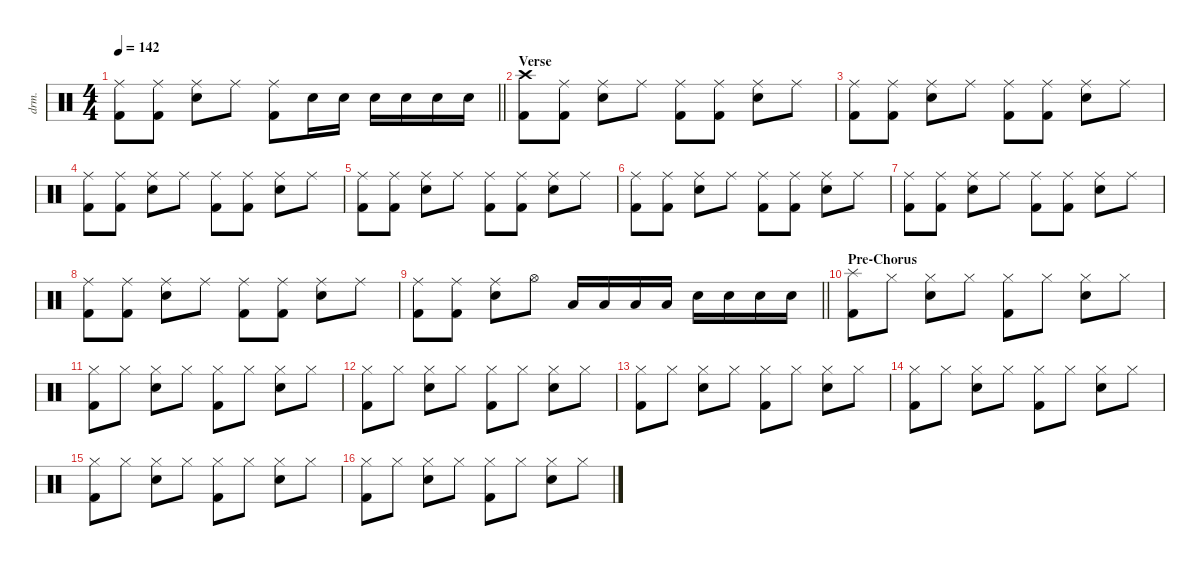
\defaultSystemsLayout 4
\hideDynamics
\bracketExtendMode nobrackets
\otherSystemsTrackNameOrientation horizontal
\track ("Drums" "drm.") {defaultSystemsLayout 4 instrument percussion}
\staff {score}
\articulation defaults
\ts (4 4)
\tempo 142
\clef neutral
\barLineRight lightlight
\ks c
("Ride (middle)" "Kick (hit) 2").8{dy f beam Down} ("Ride (middle)" "Kick (hit) 2").8{beam Down} ("Ride (middle)" "Snare (hit) 2").8{beam Down} "Ride (middle)".8{beam Down} ("Ride (middle)" "Kick (hit) 2").8{beam Down} "Snare (hit) 2".16{beam Down} "Snare (hit) 2".16{beam Down} "Snare (hit) 2".16{beam Down} "Snare (hit) 2".16{beam Down} "Snare (hit) 2".16{beam Down} "Snare (hit) 2".16{beam Down} |
\section ("" "Verse")
("Crash high (hit)" "Kick (hit) 2").8{beam Down} ("Ride (middle)" "Kick (hit) 2").8{beam Down} ("Ride (middle)" "Snare (hit) 2").8{beam Down} "Ride (middle)".8{beam Down} ("Ride (middle)" "Kick (hit) 2").8{beam Down} ("Ride (middle)" "Kick (hit) 2").8{beam Down} ("Ride (middle)" "Snare (hit) 2").8{beam Down} "Ride (middle)".8{beam Down} |
("Ride (middle)" "Kick (hit) 2").8{beam Down} ("Ride (middle)" "Kick (hit) 2").8{beam Down} ("Ride (middle)" "Snare (hit) 2").8{beam Down} "Ride (middle)".8{beam Down} ("Ride (middle)" "Kick (hit) 2").8{beam Down} ("Ride (middle)" "Kick (hit) 2").8{beam Down} ("Ride (middle)" "Snare (hit) 2").8{beam Down} "Ride (middle)".8{beam Down} |
("Ride (middle)" "Kick (hit) 2").8{beam Down} ("Ride (middle)" "Kick (hit) 2").8{beam Down} ("Ride (middle)" "Snare (hit) 2").8{beam Down} "Ride (middle)".8{beam Down} ("Ride (middle)" "Kick (hit) 2").8{beam Down} ("Ride (middle)" "Kick (hit) 2").8{beam Down} ("Ride (middle)" "Snare (hit) 2").8{beam Down} "Ride (middle)".8{beam Down} |
("Ride (middle)" "Kick (hit) 2").8{beam Down} ("Ride (middle)" "Kick (hit) 2").8{beam Down} ("Ride (middle)" "Snare (hit) 2").8{beam Down} "Ride (middle)".8{beam Down} ("Ride (middle)" "Kick (hit) 2").8{beam Down} ("Ride (middle)" "Kick (hit) 2").8{beam Down} ("Ride (middle)" "Snare (hit) 2").8{beam Down} "Ride (middle)".8{beam Down} |
("Ride (middle)" "Kick (hit) 2").8{beam Down} ("Ride (middle)" "Kick (hit) 2").8{beam Down} ("Ride (middle)" "Snare (hit) 2").8{beam Down} "Ride (middle)".8{beam Down} ("Ride (middle)" "Kick (hit) 2").8{beam Down} ("Ride (middle)" "Kick (hit) 2").8{beam Down} ("Ride (middle)" "Snare (hit) 2").8{beam Down} "Ride (middle)".8{beam Down} |
("Ride (middle)" "Kick (hit) 2").8{beam Down} ("Ride (middle)" "Kick (hit) 2").8{beam Down} ("Ride (middle)" "Snare (hit) 2").8{beam Down} "Ride (middle)".8{beam Down} ("Ride (middle)" "Kick (hit) 2").8{beam Down} ("Ride (middle)" "Kick (hit) 2").8{beam Down} ("Ride (middle)" "Snare (hit) 2").8{beam Down} "Ride (middle)".8{beam Down} |
("Ride (middle)" "Kick (hit) 2").8{beam Down} ("Ride (middle)" "Kick (hit) 2").8{beam Down} ("Ride (middle)" "Snare (hit) 2").8{beam Down} "Ride (middle)".8{beam Down} ("Ride (middle)" "Kick (hit) 2").8{beam Down} ("Ride (middle)" "Kick (hit) 2").8{beam Down} ("Ride (middle)" "Snare (hit) 2").8{beam Down} "Ride (middle)".8{beam Down} |
\barLineRight lightlight
("Ride (middle)" "Kick (hit) 2").8{beam Down} ("Ride (middle)" "Kick (hit) 2").8{beam Down} ("Ride (middle)" "Snare (hit) 2").8{beam Down} "Hi-Hat (open)".8{beam Down} "Low Tom (hit)".16{beam Up} "Low Tom (hit)".16{beam Up} "Low Tom (hit)".16{beam Up} "Low Tom (hit)".16{beam Up} "Snare (hit) 2".16{beam Down} "Snare (hit) 2".16{beam Down} "Snare (hit) 2".16{beam Down} "Snare (hit) 2".16{beam Down} |
\section ("" "Pre-Chorus")
("Splash (hit)" "Kick (hit) 2").8{beam Down} "Hi-Hat (closed)".8{beam Down} ("Hi-Hat (closed)" "Snare (hit) 2").8{beam Down} "Hi-Hat (closed)".8{beam Down} ("Hi-Hat (closed)" "Kick (hit) 2").8{beam Down} "Hi-Hat (closed)".8{beam Down} ("Hi-Hat (closed)" "Snare (hit) 2").8{beam Down} "Hi-Hat (closed)".8{beam Down} |
("Hi-Hat (closed)" "Kick (hit) 2").8{beam Down} "Hi-Hat (closed)".8{beam Down} ("Hi-Hat (closed)" "Snare (hit) 2").8{beam Down} "Hi-Hat (closed)".8{beam Down} ("Hi-Hat (closed)" "Kick (hit) 2").8{beam Down} "Hi-Hat (closed)".8{beam Down} ("Hi-Hat (closed)" "Snare (hit) 2").8{beam Down} "Hi-Hat (closed)".8{beam Down} |
("Hi-Hat (closed)" "Kick (hit) 2").8{beam Down} "Hi-Hat (closed)".8{beam Down} ("Hi-Hat (closed)" "Snare (hit) 2").8{beam Down} "Hi-Hat (closed)".8{beam Down} ("Hi-Hat (closed)" "Kick (hit) 2").8{beam Down} "Hi-Hat (closed)".8{beam Down} ("Hi-Hat (closed)" "Snare (hit) 2").8{beam Down} "Hi-Hat (closed)".8{beam Down} |
("Hi-Hat (closed)" "Kick (hit) 2").8{beam Down} "Hi-Hat (closed)".8{beam Down} ("Hi-Hat (closed)" "Snare (hit) 2").8{beam Down} "Hi-Hat (closed)".8{beam Down} ("Hi-Hat (closed)" "Kick (hit) 2").8{beam Down} "Hi-Hat (closed)".8{beam Down} ("Hi-Hat (closed)" "Snare (hit) 2").8{beam Down} "Hi-Hat (closed)".8{beam Down} |
("Hi-Hat (closed)" "Kick (hit) 2").8{beam Down} "Hi-Hat (closed)".8{beam Down} ("Hi-Hat (closed)" "Snare (hit) 2").8{beam Down} "Hi-Hat (closed)".8{beam Down} ("Hi-Hat (closed)" "Kick (hit) 2").8{beam Down} "Hi-Hat (closed)".8{beam Down} ("Hi-Hat (closed)" "Snare (hit) 2").8{beam Down} "Hi-Hat (closed)".8{beam Down} |
("Hi-Hat (closed)" "Kick (hit) 2").8{beam Down} "Hi-Hat (closed)".8{beam Down} ("Hi-Hat (closed)" "Snare (hit) 2").8{beam Down} "Hi-Hat (closed)".8{beam Down} ("Hi-Hat (closed)" "Kick (hit) 2").8{beam Down} "Hi-Hat (closed)".8{beam Down} ("Hi-Hat (closed)" "Snare (hit) 2").8{beam Down} "Hi-Hat (closed)".8{beam Down} |
("Hi-Hat (closed)" "Kick (hit) 2").8{beam Down} "Hi-Hat (closed)".8{beam Down} ("Hi-Hat (closed)" "Snare (hit) 2").8{beam Down} "Hi-Hat (closed)".8{beam Down} ("Hi-Hat (closed)" "Kick (hit) 2").8{beam Down} "Hi-Hat (closed)".8{beam Down} ("Hi-Hat (closed)" "Snare (hit) 2").8{beam Down} "Hi-Hat (closed)".8{beam Down}
